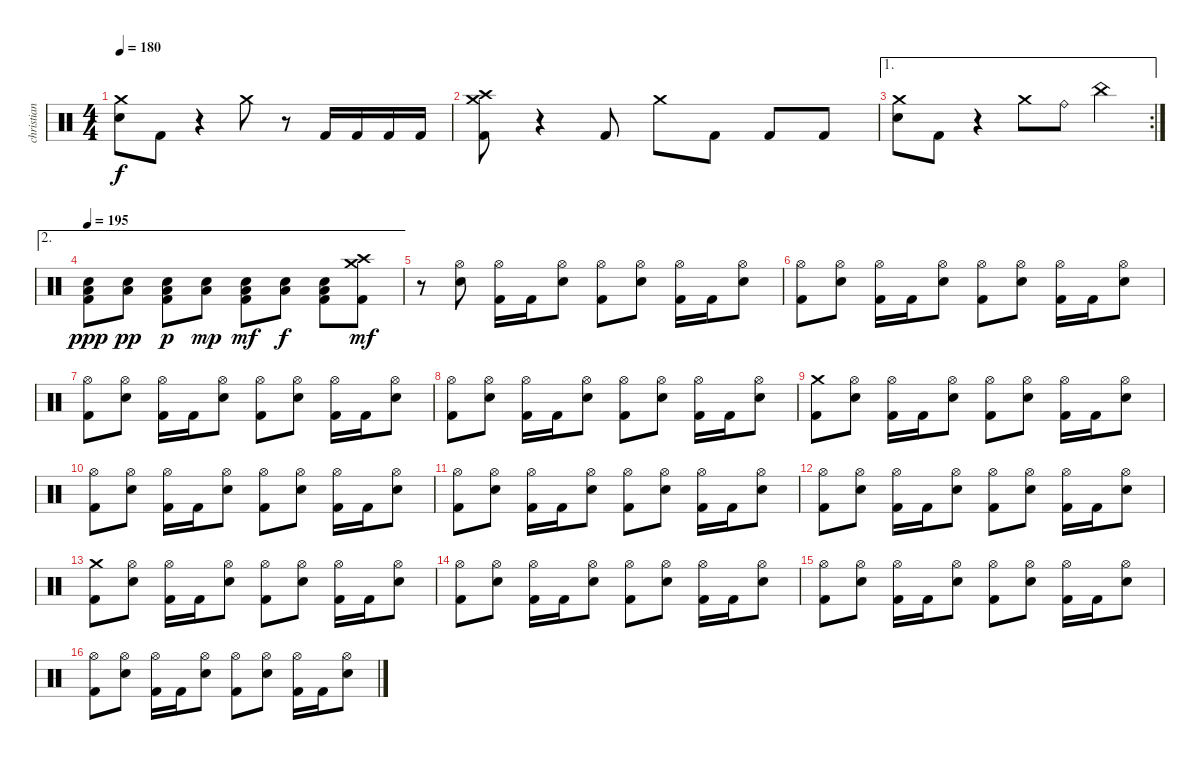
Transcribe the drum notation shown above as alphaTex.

\track ("christian" "christian") {instrument percussion}
\staff {score}
\articulation defaults
\ts (4 4)
\tempo 180
\clef neutral
\ks c
("Crash medium (hit)" "Electric Snare (hit)").8{dy f} "Kick (hit) 2".8 r.4 "Crash medium (hit)".8 r.8 "Kick (hit) 2".16 "Kick (hit) 2".16 "Kick (hit) 2".16 "Kick (hit) 2".16 |
("Crash medium (hit)" "Crash high (hit)" "Kick (hit) 2").8 r.4 "Kick (hit) 2".8 "Crash medium (hit)".8 "Kick (hit) 2".8 "Kick (hit) 2".8 "Kick (hit) 2".8 |
\ae 1
\rc 2
("Crash medium (hit)" "Electric Snare (hit)").8 "Kick (hit) 2".8 r.4 "Crash medium (hit)".8 "Ride (bell)".8 "China (hit)".4 |
\ae 2
\tempo 195
("Electric Snare (hit)" "Low Floor Tom (hit)" "Kick (hit) 2").8{dy ppp} ("Electric Snare (hit)" "Low Floor Tom (hit)").8{dy pp} ("Electric Snare (hit)" "Low Floor Tom (hit)" "Kick (hit) 2").8{dy p} ("Electric Snare (hit)" "Low Floor Tom (hit)").8{dy mp} ("Electric Snare (hit)" "Low Floor Tom (hit)" "Kick (hit) 2").8{dy mf} ("Electric Snare (hit)" "Low Floor Tom (hit)").8{dy f} ("Electric Snare (hit)" "Low Floor Tom (hit)" "Kick (hit) 2").8 ("Crash medium (hit)" "Crash high (hit)" "Kick (hit) 2").8{dy mf} |
r.8 ("Hi-Hat (open)" "Electric Snare (hit)").8 ("Hi-Hat (open)" "Kick (hit) 2").16 "Kick (hit) 2".16 ("Hi-Hat (open)" "Electric Snare (hit)").8 ("Hi-Hat (open)" "Kick (hit) 2").8 ("Hi-Hat (open)" "Electric Snare (hit)").8 ("Hi-Hat (open)" "Kick (hit) 2").16 "Kick (hit) 2".16 ("Hi-Hat (open)" "Electric Snare (hit)").8 |
("Hi-Hat (open)" "Kick (hit) 2").8 ("Hi-Hat (open)" "Electric Snare (hit)").8 ("Hi-Hat (open)" "Kick (hit) 2").16 "Kick (hit) 2".16 ("Hi-Hat (open)" "Electric Snare (hit)").8 ("Hi-Hat (open)" "Kick (hit) 2").8 ("Hi-Hat (open)" "Electric Snare (hit)").8 ("Hi-Hat (open)" "Kick (hit) 2").16 "Kick (hit) 2".16 ("Hi-Hat (open)" "Electric Snare (hit)").8 |
("Hi-Hat (open)" "Kick (hit) 2").8 ("Hi-Hat (open)" "Electric Snare (hit)").8 ("Hi-Hat (open)" "Kick (hit) 2").16 "Kick (hit) 2".16 ("Hi-Hat (open)" "Electric Snare (hit)").8 ("Hi-Hat (open)" "Kick (hit) 2").8 ("Hi-Hat (open)" "Electric Snare (hit)").8 ("Hi-Hat (open)" "Kick (hit) 2").16 "Kick (hit) 2".16 ("Hi-Hat (open)" "Electric Snare (hit)").8 |
("Hi-Hat (open)" "Kick (hit) 2").8 ("Hi-Hat (open)" "Electric Snare (hit)").8 ("Hi-Hat (open)" "Kick (hit) 2").16 "Kick (hit) 2".16 ("Hi-Hat (open)" "Electric Snare (hit)").8 ("Hi-Hat (open)" "Kick (hit) 2").8 ("Hi-Hat (open)" "Electric Snare (hit)").8 ("Hi-Hat (open)" "Kick (hit) 2").16 "Kick (hit) 2".16 ("Hi-Hat (open)" "Electric Snare (hit)").8 |
("Crash medium (hit)" "Kick (hit) 2").8 ("Hi-Hat (open)" "Electric Snare (hit)").8 ("Hi-Hat (open)" "Kick (hit) 2").16 "Kick (hit) 2".16 ("Hi-Hat (open)" "Electric Snare (hit)").8 ("Hi-Hat (open)" "Kick (hit) 2").8 ("Hi-Hat (open)" "Electric Snare (hit)").8 ("Hi-Hat (open)" "Kick (hit) 2").16 "Kick (hit) 2".16 ("Hi-Hat (open)" "Electric Snare (hit)").8 |
("Hi-Hat (open)" "Kick (hit) 2").8 ("Hi-Hat (open)" "Electric Snare (hit)").8 ("Hi-Hat (open)" "Kick (hit) 2").16 "Kick (hit) 2".16 ("Hi-Hat (open)" "Electric Snare (hit)").8 ("Hi-Hat (open)" "Kick (hit) 2").8 ("Hi-Hat (open)" "Electric Snare (hit)").8 ("Hi-Hat (open)" "Kick (hit) 2").16 "Kick (hit) 2".16 ("Hi-Hat (open)" "Electric Snare (hit)").8 |
("Hi-Hat (open)" "Kick (hit) 2").8 ("Hi-Hat (open)" "Electric Snare (hit)").8 ("Hi-Hat (open)" "Kick (hit) 2").16 "Kick (hit) 2".16 ("Hi-Hat (open)" "Electric Snare (hit)").8 ("Hi-Hat (open)" "Kick (hit) 2").8 ("Hi-Hat (open)" "Electric Snare (hit)").8 ("Hi-Hat (open)" "Kick (hit) 2").16 "Kick (hit) 2".16 ("Hi-Hat (open)" "Electric Snare (hit)").8 |
("Hi-Hat (open)" "Kick (hit) 2").8 ("Hi-Hat (open)" "Electric Snare (hit)").8 ("Hi-Hat (open)" "Kick (hit) 2").16 "Kick (hit) 2".16 ("Hi-Hat (open)" "Electric Snare (hit)").8 ("Hi-Hat (open)" "Kick (hit) 2").8 ("Hi-Hat (open)" "Electric Snare (hit)").8 ("Hi-Hat (open)" "Kick (hit) 2").16 "Kick (hit) 2".16 ("Hi-Hat (open)" "Electric Snare (hit)").8 |
("Crash medium (hit)" "Kick (hit) 2").8 ("Hi-Hat (open)" "Electric Snare (hit)").8 ("Hi-Hat (open)" "Kick (hit) 2").16 "Kick (hit) 2".16 ("Hi-Hat (open)" "Electric Snare (hit)").8 ("Hi-Hat (open)" "Kick (hit) 2").8 ("Hi-Hat (open)" "Electric Snare (hit)").8 ("Hi-Hat (open)" "Kick (hit) 2").16 "Kick (hit) 2".16 ("Hi-Hat (open)" "Electric Snare (hit)").8 |
("Hi-Hat (open)" "Kick (hit) 2").8 ("Hi-Hat (open)" "Electric Snare (hit)").8 ("Hi-Hat (open)" "Kick (hit) 2").16 "Kick (hit) 2".16 ("Hi-Hat (open)" "Electric Snare (hit)").8 ("Hi-Hat (open)" "Kick (hit) 2").8 ("Hi-Hat (open)" "Electric Snare (hit)").8 ("Hi-Hat (open)" "Kick (hit) 2").16 "Kick (hit) 2".16 ("Hi-Hat (open)" "Electric Snare (hit)").8 |
("Hi-Hat (open)" "Kick (hit) 2").8 ("Hi-Hat (open)" "Electric Snare (hit)").8 ("Hi-Hat (open)" "Kick (hit) 2").16 "Kick (hit) 2".16 ("Hi-Hat (open)" "Electric Snare (hit)").8 ("Hi-Hat (open)" "Kick (hit) 2").8 ("Hi-Hat (open)" "Electric Snare (hit)").8 ("Hi-Hat (open)" "Kick (hit) 2").16 "Kick (hit) 2".16 ("Hi-Hat (open)" "Electric Snare (hit)").8 |
("Hi-Hat (open)" "Kick (hit) 2").8 ("Hi-Hat (open)" "Electric Snare (hit)").8 ("Hi-Hat (open)" "Kick (hit) 2").16 "Kick (hit) 2".16 ("Hi-Hat (open)" "Electric Snare (hit)").8 ("Hi-Hat (open)" "Kick (hit) 2").8 ("Hi-Hat (open)" "Electric Snare (hit)").8 ("Hi-Hat (open)" "Kick (hit) 2").16 "Kick (hit) 2".16 ("Hi-Hat (open)" "Electric Snare (hit)").8
